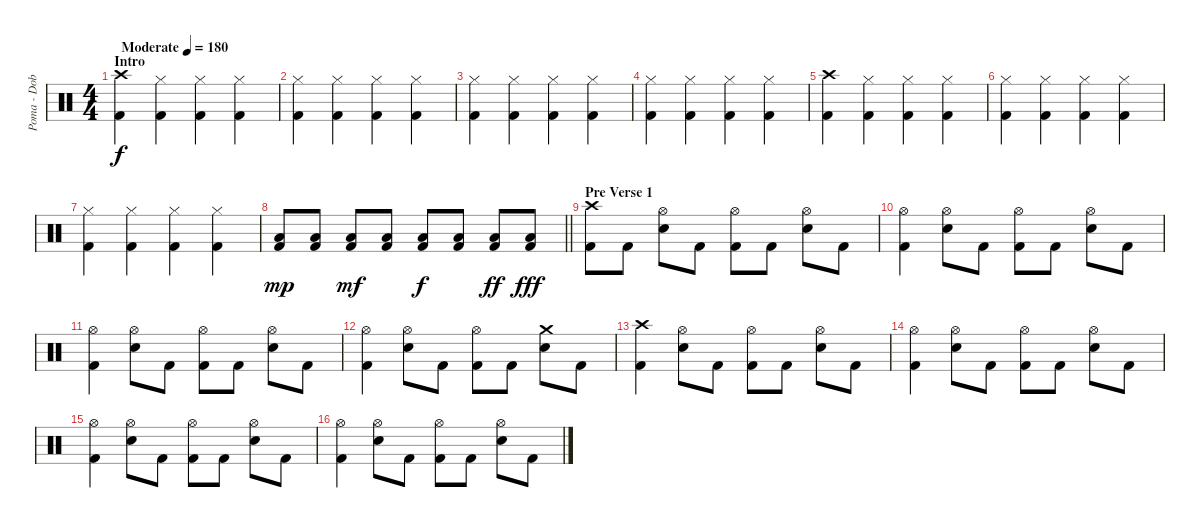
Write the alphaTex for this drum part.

\track ("Poma - Dob" "Poma - Dob") {instrument percussion}
\staff {score}
\articulation defaults
\ts (4 4)
\section ("" "Intro")
\tempo (180 "Moderate")
\clef neutral
\ks c
("Crash high (hit)" "Kick (hit) 2").4{dy f} ("Hi-Hat (closed)" "Kick (hit) 2").4 ("Hi-Hat (closed)" "Kick (hit) 2").4 ("Hi-Hat (closed)" "Kick (hit) 2").4 |
("Hi-Hat (closed)" "Kick (hit) 2").4 ("Hi-Hat (closed)" "Kick (hit) 2").4 ("Hi-Hat (closed)" "Kick (hit) 2").4 ("Hi-Hat (closed)" "Kick (hit) 2").4 |
("Hi-Hat (closed)" "Kick (hit) 2").4 ("Hi-Hat (closed)" "Kick (hit) 2").4 ("Hi-Hat (closed)" "Kick (hit) 2").4 ("Hi-Hat (closed)" "Kick (hit) 2").4 |
("Hi-Hat (closed)" "Kick (hit) 2").4 ("Hi-Hat (closed)" "Kick (hit) 2").4 ("Hi-Hat (closed)" "Kick (hit) 2").4 ("Hi-Hat (closed)" "Kick (hit) 2").4 |
("Crash high (hit)" "Kick (hit) 2").4 ("Hi-Hat (closed)" "Kick (hit) 2").4 ("Hi-Hat (closed)" "Kick (hit) 2").4 ("Hi-Hat (closed)" "Kick (hit) 2").4 |
("Hi-Hat (closed)" "Kick (hit) 2").4 ("Hi-Hat (closed)" "Kick (hit) 2").4 ("Hi-Hat (closed)" "Kick (hit) 2").4 ("Hi-Hat (closed)" "Kick (hit) 2").4 |
("Hi-Hat (closed)" "Kick (hit) 2").4 ("Hi-Hat (closed)" "Kick (hit) 2").4 ("Hi-Hat (closed)" "Kick (hit) 2").4 ("Hi-Hat (closed)" "Kick (hit) 2").4 |
\barLineRight lightlight
("Low Tom (hit)" "Kick (hit) 2").8{dy mp} ("Low Tom (hit)" "Kick (hit) 2").8 ("Low Tom (hit)" "Kick (hit) 2").8{dy mf} ("Low Tom (hit)" "Kick (hit) 2").8 ("Low Tom (hit)" "Kick (hit) 2").8{dy f} ("Low Tom (hit)" "Kick (hit) 2").8 ("Low Tom (hit)" "Kick (hit) 2").8{dy ff} ("Low Tom (hit)" "Kick (hit) 2").8{dy fff} |
\section ("" "Pre Verse 1")
("Crash high (hit)" "Kick (hit) 2").8 "Kick (hit) 2".8 ("Hi-Hat (open)" "Electric Snare (hit)").8 "Kick (hit) 2".8 ("Hi-Hat (open)" "Kick (hit) 2").8 "Kick (hit) 2".8 ("Hi-Hat (open)" "Electric Snare (hit)").8 "Kick (hit) 2".8 |
("Hi-Hat (open)" "Kick (hit) 2").4 ("Hi-Hat (open)" "Electric Snare (hit)").8 "Kick (hit) 2".8 ("Hi-Hat (open)" "Kick (hit) 2").8 "Kick (hit) 2".8 ("Hi-Hat (open)" "Electric Snare (hit)").8 "Kick (hit) 2".8 |
("Hi-Hat (open)" "Kick (hit) 2").4 ("Hi-Hat (open)" "Electric Snare (hit)").8 "Kick (hit) 2".8 ("Hi-Hat (open)" "Kick (hit) 2").8 "Kick (hit) 2".8 ("Hi-Hat (open)" "Electric Snare (hit)").8 "Kick (hit) 2".8 |
("Hi-Hat (open)" "Kick (hit) 2").4 ("Hi-Hat (open)" "Electric Snare (hit)").8 "Kick (hit) 2".8 ("Hi-Hat (open)" "Kick (hit) 2").8 "Kick (hit) 2".8 ("Crash medium (hit)" "Electric Snare (hit)").8 "Kick (hit) 2".8 |
("Crash high (hit)" "Kick (hit) 2").4 ("Hi-Hat (open)" "Electric Snare (hit)").8 "Kick (hit) 2".8 ("Hi-Hat (open)" "Kick (hit) 2").8 "Kick (hit) 2".8 ("Hi-Hat (open)" "Electric Snare (hit)").8 "Kick (hit) 2".8 |
("Hi-Hat (open)" "Kick (hit) 2").4 ("Hi-Hat (open)" "Electric Snare (hit)").8 "Kick (hit) 2".8 ("Hi-Hat (open)" "Kick (hit) 2").8 "Kick (hit) 2".8 ("Hi-Hat (open)" "Electric Snare (hit)").8 "Kick (hit) 2".8 |
("Hi-Hat (open)" "Kick (hit) 2").4 ("Hi-Hat (open)" "Electric Snare (hit)").8 "Kick (hit) 2".8 ("Hi-Hat (open)" "Kick (hit) 2").8 "Kick (hit) 2".8 ("Hi-Hat (open)" "Electric Snare (hit)").8 "Kick (hit) 2".8 |
("Hi-Hat (open)" "Kick (hit) 2").4 ("Hi-Hat (open)" "Electric Snare (hit)").8 "Kick (hit) 2".8 ("Hi-Hat (open)" "Kick (hit) 2").8 "Kick (hit) 2".8 ("Hi-Hat (open)" "Electric Snare (hit)").8 "Kick (hit) 2".8
